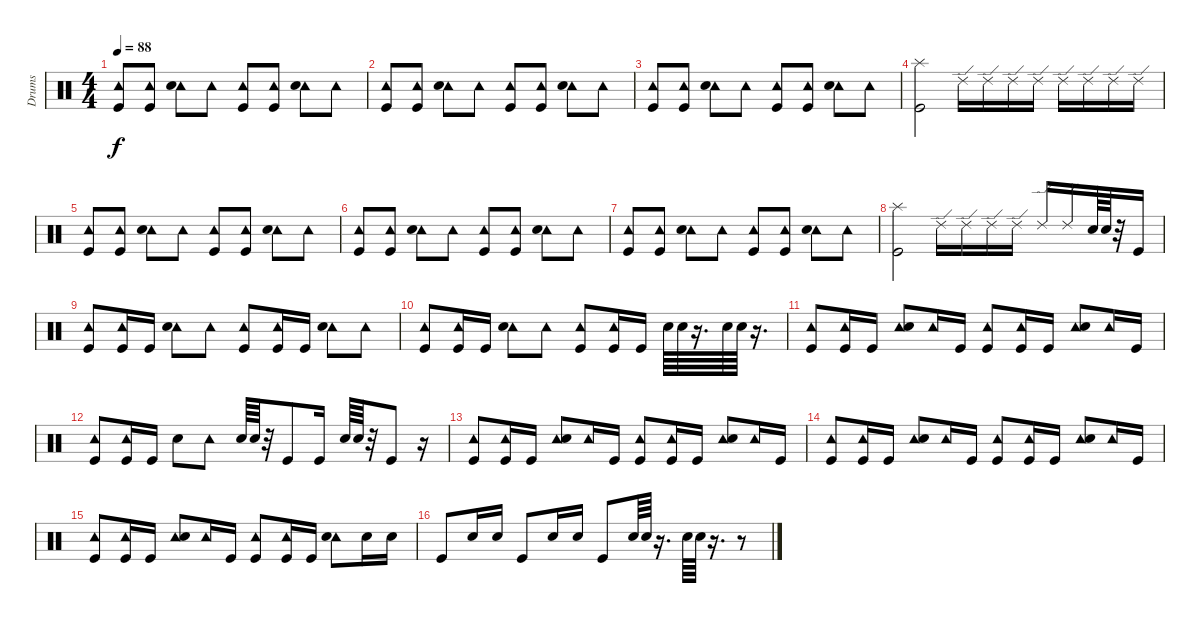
\track ("Drums" "Drums") {instrument percussion}
\staff {score}
\articulation defaults
\ts (4 4)
\tempo 88
\clef neutral
\ks c
("Tambourine (hit)" "Kick (hit)").8{dy f} ("Tambourine (hit)" "Kick (hit)").8 ("Tambourine (hit)" "Snare (hit) 2").8 "Tambourine (hit)".8 ("Tambourine (hit)" "Kick (hit)").8 ("Tambourine (hit)" "Kick (hit)").8 ("Tambourine (hit)" "Snare (hit) 2").8 "Tambourine (hit)".8 |
("Tambourine (hit)" "Kick (hit)").8 ("Tambourine (hit)" "Kick (hit)").8 ("Tambourine (hit)" "Snare (hit) 2").8 "Tambourine (hit)".8 ("Tambourine (hit)" "Kick (hit)").8 ("Tambourine (hit)" "Kick (hit)").8 ("Tambourine (hit)" "Snare (hit) 2").8 "Tambourine (hit)".8 |
("Tambourine (hit)" "Kick (hit)").8 ("Tambourine (hit)" "Kick (hit)").8 ("Tambourine (hit)" "Snare (hit) 2").8 "Tambourine (hit)".8 ("Tambourine (hit)" "Kick (hit)").8 ("Tambourine (hit)" "Kick (hit)").8 ("Tambourine (hit)" "Snare (hit) 2").8 "Tambourine (hit)".8 |
("Kick (hit)" "Splash (hit)").2 "Ride (edge) 2".16 "Ride (edge) 2".16 "Ride (edge) 2".16 "Ride (edge) 2".16 "Ride (edge) 2".16 "Ride (edge) 2".16 "Ride (edge) 2".16 "Ride (edge) 2".16 |
("Tambourine (hit)" "Kick (hit)").8 ("Tambourine (hit)" "Kick (hit)").8 ("Tambourine (hit)" "Snare (hit) 2").8 "Tambourine (hit)".8 ("Tambourine (hit)" "Kick (hit)").8 ("Tambourine (hit)" "Kick (hit)").8 ("Tambourine (hit)" "Snare (hit) 2").8 "Tambourine (hit)".8 |
("Tambourine (hit)" "Kick (hit)").8 ("Tambourine (hit)" "Kick (hit)").8 ("Tambourine (hit)" "Snare (hit) 2").8 "Tambourine (hit)".8 ("Tambourine (hit)" "Kick (hit)").8 ("Tambourine (hit)" "Kick (hit)").8 ("Tambourine (hit)" "Snare (hit) 2").8 "Tambourine (hit)".8 |
("Tambourine (hit)" "Kick (hit)").8 ("Tambourine (hit)" "Kick (hit)").8 ("Tambourine (hit)" "Snare (hit) 2").8 "Tambourine (hit)".8 ("Tambourine (hit)" "Kick (hit)").8 ("Tambourine (hit)" "Kick (hit)").8 ("Tambourine (hit)" "Snare (hit) 2").8 "Tambourine (hit)".8 |
("Kick (hit)" "Splash (hit)").2 "Ride (edge) 2".16 "Ride (edge) 2".16 "Ride (edge) 2".16 "Ride (edge) 2".16 "Ride (edge) 2".16 "Ride (edge) 2".16 "Snare (hit) 2".64 "Snare (hit) 2".64 r.32 "Kick (hit)".16 |
("Tambourine (hit)" "Kick (hit)").8 ("Tambourine (hit)" "Kick (hit)").16 "Kick (hit)".16 ("Tambourine (hit)" "Snare (hit) 2").8 "Tambourine (hit)".8 ("Tambourine (hit)" "Kick (hit)").8 ("Tambourine (hit)" "Kick (hit)").16 "Kick (hit)".16 ("Tambourine (hit)" "Snare (hit) 2").8 "Tambourine (hit)".8 |
("Tambourine (hit)" "Kick (hit)").8 ("Tambourine (hit)" "Kick (hit)").16 "Kick (hit)".16 ("Tambourine (hit)" "Snare (hit) 2").8 "Tambourine (hit)".8 ("Tambourine (hit)" "Kick (hit)").8 ("Tambourine (hit)" "Kick (hit)").16 "Kick (hit)".16 "Snare (hit) 2".64 "Snare (hit) 2".64 r.16{d} "Snare (hit) 2".64 "Snare (hit) 2".64 r.16{d} |
("Tambourine (hit)" "Kick (hit)").8 ("Tambourine (hit)" "Kick (hit)").16 "Kick (hit)".16 ("Tambourine (hit)" "Snare (hit) 2").8 "Tambourine (hit)".16 "Kick (hit)".16 ("Tambourine (hit)" "Kick (hit)").8 ("Tambourine (hit)" "Kick (hit)").16 "Kick (hit)".16 ("Tambourine (hit)" "Snare (hit) 2").8 "Tambourine (hit)".16 "Kick (hit)".16 |
("Tambourine (hit)" "Kick (hit)").8 ("Tambourine (hit)" "Kick (hit)").16 "Kick (hit)".16 "Snare (hit) 2".8 "Tambourine (hit)".8 "Snare (hit) 2".64 "Snare (hit) 2".64 r.32 "Kick (hit)".8 "Kick (hit)".16 "Snare (hit) 2".64 "Snare (hit) 2".64 r.32 "Kick (hit)".8 r.16 |
("Tambourine (hit)" "Kick (hit)").8 ("Tambourine (hit)" "Kick (hit)").16 "Kick (hit)".16 ("Tambourine (hit)" "Snare (hit) 2").8 "Tambourine (hit)".16 "Kick (hit)".16 ("Tambourine (hit)" "Kick (hit)").8 ("Tambourine (hit)" "Kick (hit)").16 "Kick (hit)".16 ("Tambourine (hit)" "Snare (hit) 2").8 "Tambourine (hit)".16 "Kick (hit)".16 |
("Tambourine (hit)" "Kick (hit)").8 ("Tambourine (hit)" "Kick (hit)").16 "Kick (hit)".16 ("Tambourine (hit)" "Snare (hit) 2").8 "Tambourine (hit)".16 "Kick (hit)".16 ("Tambourine (hit)" "Kick (hit)").8 ("Tambourine (hit)" "Kick (hit)").16 "Kick (hit)".16 ("Tambourine (hit)" "Snare (hit) 2").8 "Tambourine (hit)".16 "Kick (hit)".16 |
("Tambourine (hit)" "Kick (hit)").8 ("Tambourine (hit)" "Kick (hit)").16 "Kick (hit)".16 ("Tambourine (hit)" "Snare (hit) 2").8 "Tambourine (hit)".16 "Kick (hit)".16 ("Tambourine (hit)" "Kick (hit)").8 ("Tambourine (hit)" "Kick (hit)").16 "Kick (hit)".16 ("Tambourine (hit)" "Snare (hit) 2").8 "Snare (hit) 2".16 "Snare (hit) 2".16 |
"Kick (hit)".8 "Snare (hit) 2".16 "Snare (hit) 2".16 "Kick (hit)".8 "Snare (hit) 2".16 "Snare (hit) 2".16 "Kick (hit)".8 "Snare (hit) 2".64 "Snare (hit) 2".64 r.16{d} "Snare (hit) 2".64 "Snare (hit) 2".64 r.16{d} r.8
